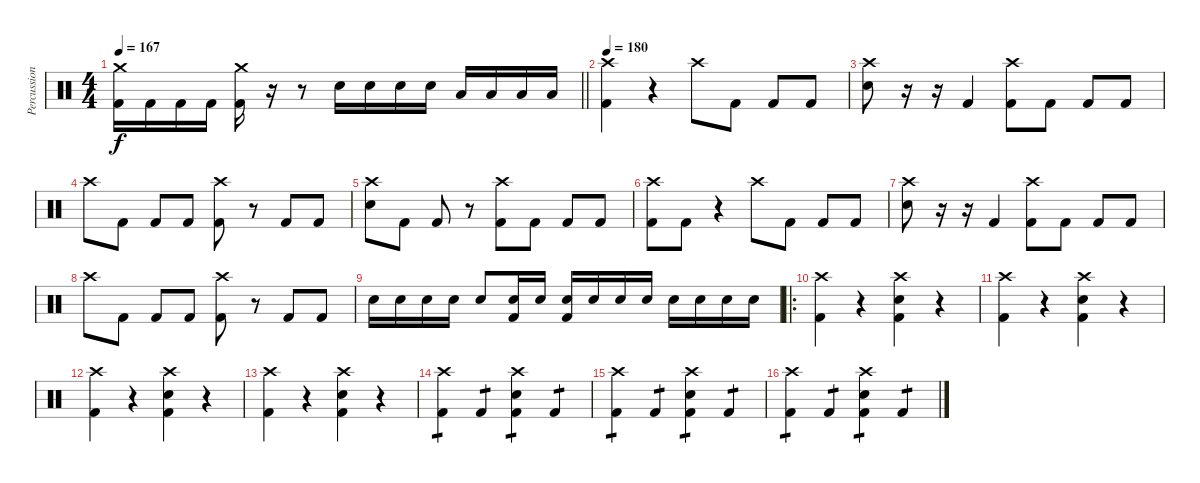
\track ("Percussion" "Percussion") {instrument percussion}
\staff {score}
\articulation defaults
\ts (4 4)
\tempo 167
\clef neutral
\barLineRight lightlight
\ks c
("Crash medium (hit)" "Kick (hit) 2").16{dy f} "Kick (hit) 2".16 "Kick (hit) 2".16 "Kick (hit) 2".16 ("Crash medium (hit)" "Kick (hit) 2").16 r.16 r.8 "Electric Snare (hit)".16 "Electric Snare (hit)".16 "Electric Snare (hit)".16 "Electric Snare (hit)".16 "Low Tom (hit)".16 "Low Tom (hit)".16 "Low Tom (hit)".16 "Low Tom (hit)".16 |
\tempo 180
("Crash high (hit)" "Kick (hit) 2").4 r.4 "Crash high (hit)".8 "Kick (hit) 2".8 "Kick (hit) 2".8 "Kick (hit) 2".8 |
("Crash high (hit)" "Electric Snare (hit)").8 r.16 r.16 "Kick (hit) 2".4 ("Crash high (hit)" "Kick (hit) 2").8 "Kick (hit) 2".8 "Kick (hit) 2".8 "Kick (hit) 2".8 |
"Crash high (hit)".8 "Kick (hit) 2".8 "Kick (hit) 2".8 "Kick (hit) 2".8 ("Crash high (hit)" "Kick (hit) 2").8 r.8 "Kick (hit) 2".8 "Kick (hit) 2".8 |
("Crash high (hit)" "Electric Snare (hit)").8 "Kick (hit) 2".8 "Kick (hit) 2".8 r.8 ("Crash high (hit)" "Kick (hit) 2").8 "Kick (hit) 2".8 "Kick (hit) 2".8 "Kick (hit) 2".8 |
("Crash high (hit)" "Kick (hit) 2").8 "Kick (hit) 2".8 r.4 "Crash high (hit)".8 "Kick (hit) 2".8 "Kick (hit) 2".8 "Kick (hit) 2".8 |
("Crash high (hit)" "Electric Snare (hit)").8 r.16 r.16 "Kick (hit) 2".4 ("Crash high (hit)" "Kick (hit) 2").8 "Kick (hit) 2".8 "Kick (hit) 2".8 "Kick (hit) 2".8 |
"Crash high (hit)".8 "Kick (hit) 2".8 "Kick (hit) 2".8 "Kick (hit) 2".8 ("Crash high (hit)" "Kick (hit) 2").8 r.8 "Kick (hit) 2".8 "Kick (hit) 2".8 |
"Electric Snare (hit)".16 "Electric Snare (hit)".16 "Electric Snare (hit)".16 "Electric Snare (hit)".16 "Electric Snare (hit)".8 ("Electric Snare (hit)" "Kick (hit) 2").16 "Electric Snare (hit)".16 ("Electric Snare (hit)" "Kick (hit) 2").16 "Electric Snare (hit)".16 "Electric Snare (hit)".16 "Electric Snare (hit)".16 "Electric Snare (hit)".16 "Electric Snare (hit)".16 "Electric Snare (hit)".16 "Electric Snare (hit)".16 |
\ro
("Crash high (hit)" "Kick (hit) 2").4 r.4 ("Crash high (hit)" "Electric Snare (hit)" "Kick (hit) 2").4 r.4 |
("Crash high (hit)" "Kick (hit) 2").4 r.4 ("Crash high (hit)" "Electric Snare (hit)" "Kick (hit) 2").4 r.4 |
("Crash high (hit)" "Kick (hit) 2").4 r.4 ("Crash high (hit)" "Electric Snare (hit)" "Kick (hit) 2").4 r.4 |
("Crash high (hit)" "Kick (hit) 2").4 r.4 ("Crash high (hit)" "Electric Snare (hit)" "Kick (hit) 2").4 r.4 |
("Crash high (hit)" "Kick (hit) 2").4{tp 1} "Kick (hit) 2".4{tp 1} ("Crash high (hit)" "Electric Snare (hit)" "Kick (hit) 2").4{tp 1} "Kick (hit) 2".4{tp 1} |
("Crash high (hit)" "Kick (hit) 2").4{tp 1} "Kick (hit) 2".4{tp 1} ("Crash high (hit)" "Electric Snare (hit)" "Kick (hit) 2").4{tp 1} "Kick (hit) 2".4{tp 1} |
("Crash high (hit)" "Kick (hit) 2").4{tp 1} "Kick (hit) 2".4{tp 1} ("Crash high (hit)" "Electric Snare (hit)" "Kick (hit) 2").4{tp 1} "Kick (hit) 2".4{tp 1}
